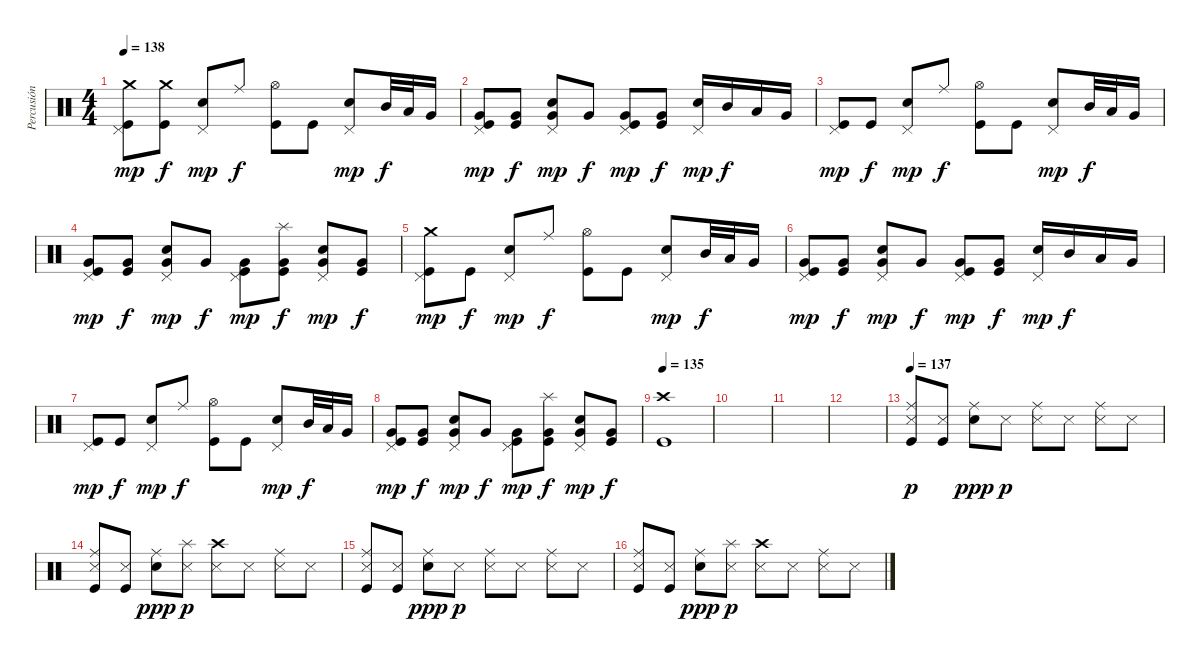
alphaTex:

\track ("Percusión" "Percusión") {instrument percussion}
\staff {score}
\articulation defaults
\ts (4 4)
\tempo 138
\clef neutral
\ks c
("Crash medium (hit)" "Pedal Hi-Hat (hit)" "Kick (hit)").8{dy mp} ("Crash medium (hit)" "Kick (hit)").8{dy f} ("Pedal Hi-Hat (hit)" "Snare (hit) 2").8{dy mp} "Ride (middle)".8{dy f} ("Hi-Hat (open)" "Kick (hit)").8 "Kick (hit)".8 ("Pedal Hi-Hat (hit)" "Snare (hit) 2").8{dy mp} "Mid Tom (hit)".32{dy f} "Low Tom (hit)".32 "Very Low Tom (hit)".16 |
("Pedal Hi-Hat (hit)" "Very Low Tom (hit)" "Kick (hit)").8{dy mp} ("Very Low Tom (hit)" "Kick (hit)").8{dy f} ("Pedal Hi-Hat (hit)" "Very Low Tom (hit)" "Snare (hit) 2").8{dy mp} "Very Low Tom (hit)".8{dy f} ("Pedal Hi-Hat (hit)" "Very Low Tom (hit)" "Kick (hit)").8{dy mp} ("Very Low Tom (hit)" "Kick (hit)").8{dy f} ("Pedal Hi-Hat (hit)" "Snare (hit) 2").16{dy mp} "Mid Tom (hit)".16{dy f} "Low Tom (hit)".16 "Very Low Tom (hit)".16 |
("Pedal Hi-Hat (hit)" "Kick (hit)").8{dy mp} "Kick (hit)".8{dy f} ("Pedal Hi-Hat (hit)" "Snare (hit) 2").8{dy mp} "Ride (middle)".8{dy f} ("Hi-Hat (open)" "Kick (hit)").8 "Kick (hit)".8 ("Pedal Hi-Hat (hit)" "Snare (hit) 2").8{dy mp} "Mid Tom (hit)".32{dy f} "Low Tom (hit)".32 "Very Low Tom (hit)".16 |
("Pedal Hi-Hat (hit)" "Very Low Tom (hit)" "Kick (hit)").8{dy mp} ("Very Low Tom (hit)" "Kick (hit)").8{dy f} ("Pedal Hi-Hat (hit)" "Very Low Tom (hit)" "Snare (hit) 2").8{dy mp} "Very Low Tom (hit)".8{dy f} ("Pedal Hi-Hat (hit)" "Very Low Tom (hit)" "Kick (hit)").8{dy mp} ("Splash (hit)" "Very Low Tom (hit)" "Kick (hit)").8{dy f} ("Pedal Hi-Hat (hit)" "Very Low Tom (hit)" "Snare (hit) 2").8{dy mp} ("Very Low Tom (hit)" "Kick (hit)").8{dy f} |
("Crash medium (hit)" "Pedal Hi-Hat (hit)" "Kick (hit)").8{dy mp} "Kick (hit)".8{dy f} ("Pedal Hi-Hat (hit)" "Snare (hit) 2").8{dy mp} "Ride (middle)".8{dy f} ("Hi-Hat (open)" "Kick (hit)").8 "Kick (hit)".8 ("Pedal Hi-Hat (hit)" "Snare (hit) 2").8{dy mp} "Mid Tom (hit)".32{dy f} "Low Tom (hit)".32 "Very Low Tom (hit)".16 |
("Pedal Hi-Hat (hit)" "Very Low Tom (hit)" "Kick (hit)").8{dy mp} ("Very Low Tom (hit)" "Kick (hit)").8{dy f} ("Pedal Hi-Hat (hit)" "Very Low Tom (hit)" "Snare (hit) 2").8{dy mp} "Very Low Tom (hit)".8{dy f} ("Pedal Hi-Hat (hit)" "Very Low Tom (hit)" "Kick (hit)").8{dy mp} ("Very Low Tom (hit)" "Kick (hit)").8{dy f} ("Pedal Hi-Hat (hit)" "Snare (hit) 2").16{dy mp} "Mid Tom (hit)".16{dy f} "Low Tom (hit)".16 "Very Low Tom (hit)".16 |
("Pedal Hi-Hat (hit)" "Kick (hit)").8{dy mp} "Kick (hit)".8{dy f} ("Pedal Hi-Hat (hit)" "Snare (hit) 2").8{dy mp} "Ride (middle)".8{dy f} ("Hi-Hat (open)" "Kick (hit)").8 "Kick (hit)".8 ("Pedal Hi-Hat (hit)" "Snare (hit) 2").8{dy mp} "Mid Tom (hit)".32{dy f} "Low Tom (hit)".32 "Very Low Tom (hit)".16 |
("Pedal Hi-Hat (hit)" "Very Low Tom (hit)" "Kick (hit)").8{dy mp} ("Very Low Tom (hit)" "Kick (hit)").8{dy f} ("Pedal Hi-Hat (hit)" "Very Low Tom (hit)" "Snare (hit) 2").8{dy mp} "Very Low Tom (hit)".8{dy f} ("Pedal Hi-Hat (hit)" "Very Low Tom (hit)" "Kick (hit)").8{dy mp} ("Splash (hit)" "Very Low Tom (hit)" "Kick (hit)").8{dy f} ("Pedal Hi-Hat (hit)" "Very Low Tom (hit)" "Snare (hit) 2").8{dy mp} ("Very Low Tom (hit)" "Kick (hit)").8{dy f} |
\tempo 135
("Crash high (hit)" "Kick (hit)").1 |
|
|
|
\tempo 137
("Ride (middle)" "Snare (side stick) 3" "Kick (hit)").8{dy p} ("Snare (side stick) 3" "Kick (hit)").8 ("Ride (middle)" "Snare (hit) 2").8{dy ppp} "Snare (side stick) 3".8{dy p} ("Ride (middle)" "Snare (side stick) 3").8 "Snare (side stick) 3".8 ("Ride (middle)" "Snare (side stick) 3").8 "Snare (side stick) 3".8 |
("Ride (middle)" "Snare (side stick) 3" "Kick (hit)").8 ("Snare (side stick) 3" "Kick (hit)").8 ("Ride (middle)" "Snare (hit) 2").8{dy ppp} ("Splash (hit)" "Snare (side stick) 3").8{dy p} ("Crash high (hit)" "Snare (side stick) 3").8 "Snare (side stick) 3".8 ("Ride (middle)" "Snare (side stick) 3").8 "Snare (side stick) 3".8 |
("Ride (middle)" "Snare (side stick) 3" "Kick (hit)").8 ("Snare (side stick) 3" "Kick (hit)").8 ("Ride (middle)" "Snare (hit) 2").8{dy ppp} "Snare (side stick) 3".8{dy p} ("Ride (middle)" "Snare (side stick) 3").8 "Snare (side stick) 3".8 ("Ride (middle)" "Snare (side stick) 3").8 "Snare (side stick) 3".8 |
("Ride (middle)" "Snare (side stick) 3" "Kick (hit)").8 ("Snare (side stick) 3" "Kick (hit)").8 ("Ride (middle)" "Snare (hit) 2").8{dy ppp} ("Splash (hit)" "Snare (side stick) 3").8{dy p} ("Crash high (hit)" "Snare (side stick) 3").8 "Snare (side stick) 3".8 ("Ride (middle)" "Snare (side stick) 3").8 "Snare (side stick) 3".8
